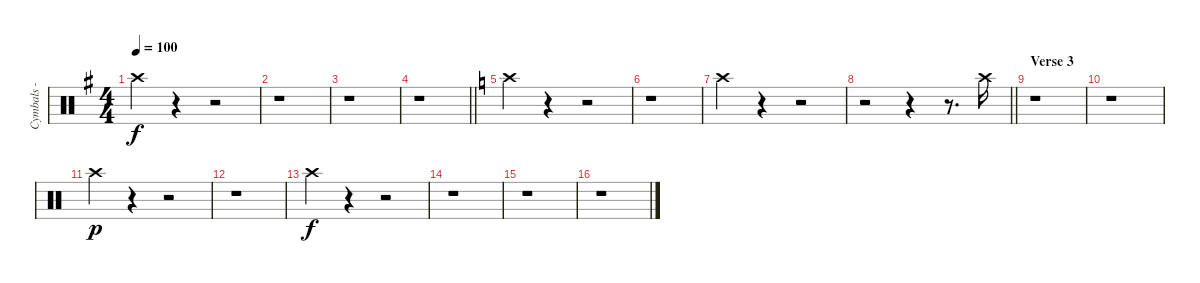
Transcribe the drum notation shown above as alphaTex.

\track ("Cymbals - crash" "Cymbals - ") {instrument percussion}
\staff {score}
\articulation defaults
\ts (4 4)
\tempo 100
\clef neutral
\ks eminor "Crash high (hit)".4{dy f}
r.4 r.2 |
r.1 |
r.1 |
\barLineRight lightlight
r.1 |
\ks c "Crash high (hit)".4
r.4 r.2 |
r.1 |
"Crash high (hit)".4 r.4 r.2 |
\barLineRight lightlight
r.2 r.4 r.8{d} "Crash high (hit)".16 |
\section ("" "Verse 3")
\ks aminor
r.1 |
r.1 |
"Crash high (hit)".4{dy p} r.4 r.2 |
r.1 |
"Crash high (hit)".4{dy f} r.4 r.2 |
r.1 |
r.1 |
r.1
